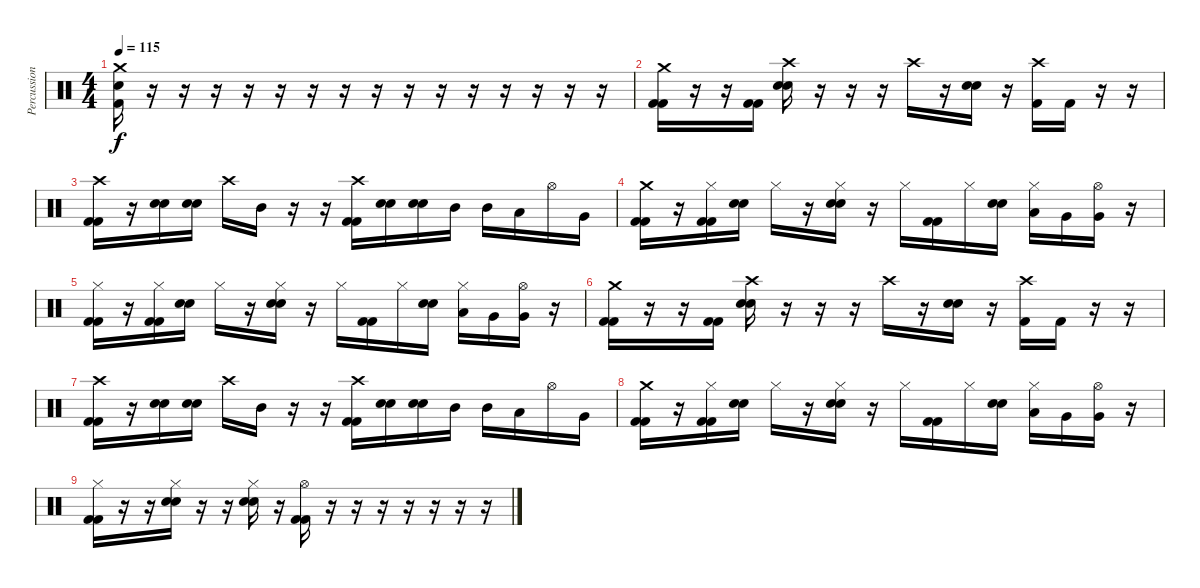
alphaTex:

\track ("Percussion" "Percussion") {instrument percussion}
\staff {score}
\articulation defaults
\ts (4 4)
\tempo 115
\clef neutral
\ks c
("Crash medium (hit)" "Electric Snare (hit)" "Kick (hit) 2").16{dy f} r.16 r.16 r.16 r.16 r.16 r.16 r.16 r.16 r.16 r.16 r.16 r.16 r.16 r.16 r.16 |
("Crash medium (hit)" "Kick (hit) 2" "Kick (hit) 2").16 r.16 r.16 ("Kick (hit) 2" "Kick (hit) 2").16 ("Crash high (hit)" "Electric Snare (hit)" "Electric Snare (hit)").16 r.16 r.16 r.16 "Crash high (hit)".16 r.16 ("Electric Snare (hit)" "Electric Snare (hit)").16 r.16 ("Crash high (hit)" "Kick (hit) 2").16 "Kick (hit) 2".16 r.16 r.16 |
("Crash high (hit)" "Kick (hit) 2" "Kick (hit) 2").16 r.16 ("Electric Snare (hit)" "Electric Snare (hit)").16 ("Electric Snare (hit)" "Electric Snare (hit)").16 "Crash high (hit)".16 "Mid Tom (hit)".16 r.16 r.16 ("Crash high (hit)" "Kick (hit) 2" "Kick (hit) 2").16 ("Electric Snare (hit)" "Electric Snare (hit)").16 ("Electric Snare (hit)" "Electric Snare (hit)").16 "Mid Tom (hit)".16 "Mid Tom (hit)".16 "Low Tom (hit)".16 "Hi-Hat (open)".16 "Very Low Tom (hit)".16 |
("Crash medium (hit)" "Kick (hit) 2" "Kick (hit) 2").16 r.16 ("Hi-Hat (closed)" "Kick (hit) 2" "Kick (hit) 2").16 ("Electric Snare (hit)" "Electric Snare (hit)").16 "Hi-Hat (closed)".16 r.16 ("Hi-Hat (closed)" "Electric Snare (hit)" "Electric Snare (hit)").16 r.16 "Hi-Hat (closed)".16 ("Kick (hit) 2" "Kick (hit) 2").16 "Hi-Hat (closed)".16 ("Electric Snare (hit)" "Electric Snare (hit)").16 ("Hi-Hat (closed)" "Low Tom (hit)").16 "Very Low Tom (hit)".16 ("Hi-Hat (open)" "Very Low Tom (hit)").16 r.16 |
("Hi-Hat (closed)" "Kick (hit) 2" "Kick (hit) 2").16 r.16 ("Hi-Hat (closed)" "Kick (hit) 2" "Kick (hit) 2").16 ("Electric Snare (hit)" "Electric Snare (hit)").16 "Hi-Hat (closed)".16 r.16 ("Hi-Hat (closed)" "Electric Snare (hit)" "Electric Snare (hit)").16 r.16 "Hi-Hat (closed)".16 ("Kick (hit) 2" "Kick (hit) 2").16 "Hi-Hat (closed)".16 ("Electric Snare (hit)" "Electric Snare (hit)").16 ("Hi-Hat (closed)" "Low Tom (hit)").16 "Very Low Tom (hit)".16 ("Hi-Hat (open)" "Very Low Tom (hit)").16 r.16 |
("Crash medium (hit)" "Kick (hit) 2" "Kick (hit) 2").16 r.16 r.16 ("Kick (hit) 2" "Kick (hit) 2").16 ("Crash high (hit)" "Electric Snare (hit)" "Electric Snare (hit)").16 r.16 r.16 r.16 "Crash high (hit)".16 r.16 ("Electric Snare (hit)" "Electric Snare (hit)").16 r.16 ("Crash high (hit)" "Kick (hit) 2").16 "Kick (hit) 2".16 r.16 r.16 |
("Crash high (hit)" "Kick (hit) 2" "Kick (hit) 2").16 r.16 ("Electric Snare (hit)" "Electric Snare (hit)").16 ("Electric Snare (hit)" "Electric Snare (hit)").16 "Crash high (hit)".16 "Mid Tom (hit)".16 r.16 r.16 ("Crash high (hit)" "Kick (hit) 2" "Kick (hit) 2").16 ("Electric Snare (hit)" "Electric Snare (hit)").16 ("Electric Snare (hit)" "Electric Snare (hit)").16 "Mid Tom (hit)".16 "Mid Tom (hit)".16 "Low Tom (hit)".16 "Hi-Hat (open)".16 "Very Low Tom (hit)".16 |
("Crash medium (hit)" "Kick (hit) 2" "Kick (hit) 2").16 r.16 ("Hi-Hat (closed)" "Kick (hit) 2" "Kick (hit) 2").16 ("Electric Snare (hit)" "Electric Snare (hit)").16 "Hi-Hat (closed)".16 r.16 ("Hi-Hat (closed)" "Electric Snare (hit)" "Electric Snare (hit)").16 r.16 "Hi-Hat (closed)".16 ("Kick (hit) 2" "Kick (hit) 2").16 "Hi-Hat (closed)".16 ("Electric Snare (hit)" "Electric Snare (hit)").16 ("Hi-Hat (closed)" "Low Tom (hit)").16 "Very Low Tom (hit)".16 ("Hi-Hat (open)" "Very Low Tom (hit)").16 r.16 |
("Hi-Hat (closed)" "Kick (hit) 2" "Kick (hit) 2").16 r.16 r.16 ("Hi-Hat (closed)" "Electric Snare (hit)" "Electric Snare (hit)").16 r.16 r.16 ("Hi-Hat (closed)" "Electric Snare (hit)" "Electric Snare (hit)").16 r.16 ("Hi-Hat (open)" "Kick (hit) 2" "Kick (hit) 2").16 r.16 r.16 r.16 r.16 r.16 r.16 r.16
